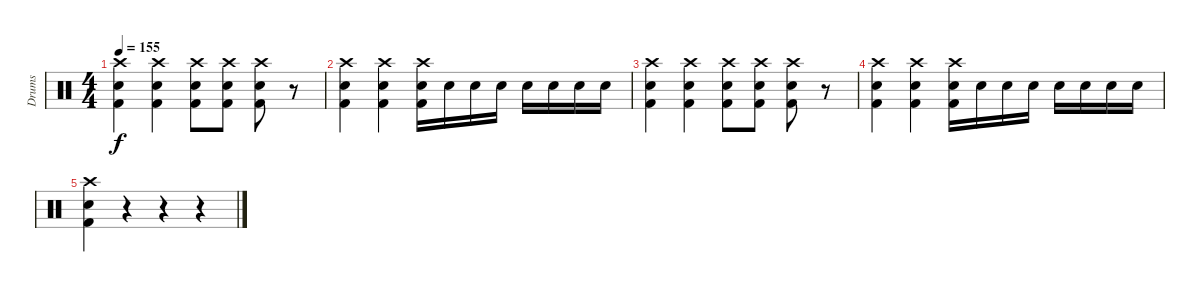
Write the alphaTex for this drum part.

\track ("Drums" "Drums") {instrument percussion}
\staff {score}
\articulation defaults
\ts (4 4)
\tempo 155
\clef neutral
\ks c
("Crash high (hit)" "Snare (hit) 2" "Kick (hit) 2").4{dy f} ("Crash high (hit)" "Snare (hit) 2" "Kick (hit) 2").4 ("Crash high (hit)" "Snare (hit) 2" "Kick (hit) 2").8 ("Crash high (hit)" "Snare (hit) 2" "Kick (hit) 2").8 ("Crash high (hit)" "Snare (hit) 2" "Kick (hit) 2").8 r.8 |
("Crash high (hit)" "Snare (hit) 2" "Kick (hit) 2").4 ("Crash high (hit)" "Snare (hit) 2" "Kick (hit) 2").4 ("Crash high (hit)" "Snare (hit) 2" "Kick (hit) 2").16 "Snare (hit) 2".16 "Snare (hit) 2".16 "Snare (hit) 2".16 "Snare (hit) 2".16 "Snare (hit) 2".16 "Snare (hit) 2".16 "Snare (hit) 2".16 |
("Crash high (hit)" "Snare (hit) 2" "Kick (hit) 2").4 ("Crash high (hit)" "Snare (hit) 2" "Kick (hit) 2").4 ("Crash high (hit)" "Snare (hit) 2" "Kick (hit) 2").8 ("Crash high (hit)" "Snare (hit) 2" "Kick (hit) 2").8 ("Crash high (hit)" "Snare (hit) 2" "Kick (hit) 2").8 r.8 |
("Crash high (hit)" "Snare (hit) 2" "Kick (hit) 2").4 ("Crash high (hit)" "Snare (hit) 2" "Kick (hit) 2").4 ("Crash high (hit)" "Snare (hit) 2" "Kick (hit) 2").16 "Snare (hit) 2".16 "Snare (hit) 2".16 "Snare (hit) 2".16 "Snare (hit) 2".16 "Snare (hit) 2".16 "Snare (hit) 2".16 "Snare (hit) 2".16 |
("Crash high (hit)" "Snare (hit) 2" "Kick (hit) 2").4 r.4 r.4 r.4
